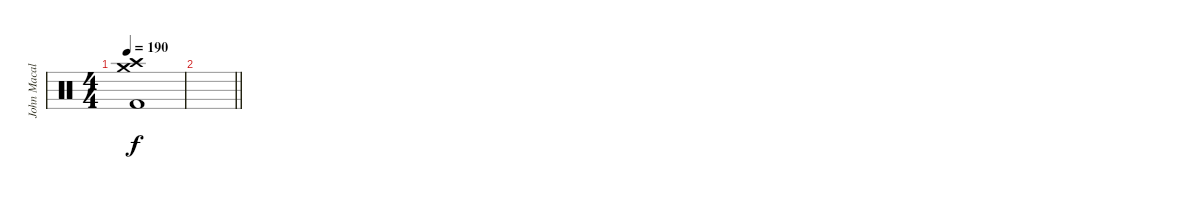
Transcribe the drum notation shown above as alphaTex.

\track ("John Macaluso" "John Macal") {instrument percussion}
\staff {score}
\articulation defaults
\ts (4 4)
\tempo 190
\clef neutral
\ks c
("Crash medium (hit)" "Crash high (hit)" "Kick (hit) 2").1{dy f} |
\barLineRight lightlight
